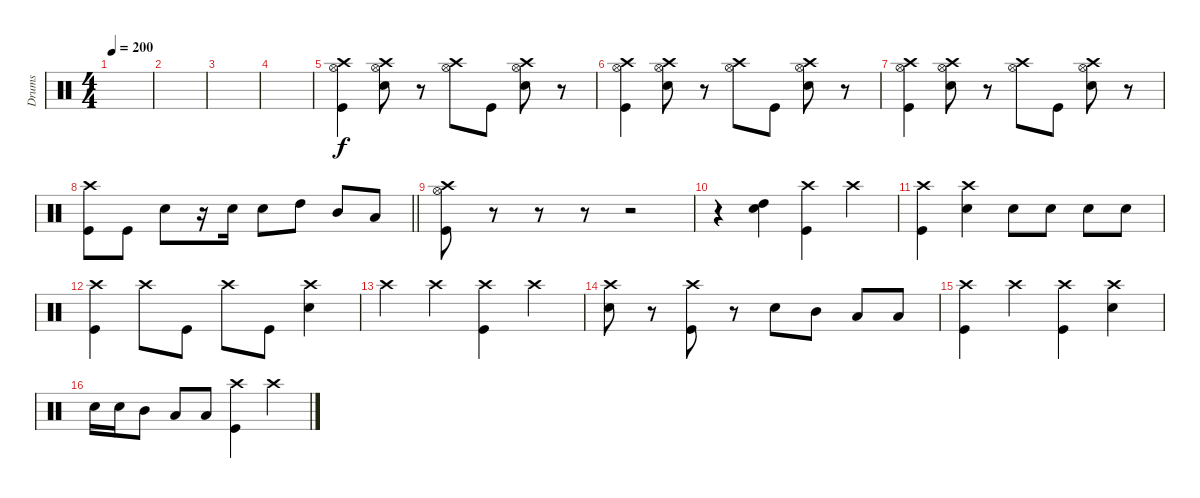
\track ("Drums" "Drums") {instrument percussion}
\staff {score}
\articulation defaults
\ts (4 4)
\tempo 200
\clef neutral
\ks c
|
|
|
|
("Crash high (hit)" "Hi-Hat (open)" "Kick (hit)").4 ("Crash high (hit)" "Snare (hit) 2" "Hi-Hat (open)").8 r.8 ("Crash high (hit)" "Hi-Hat (open)").8 "Kick (hit)".8 ("Crash high (hit)" "Snare (hit) 2" "Hi-Hat (open)").8 r.8 |
("Crash high (hit)" "Hi-Hat (open)" "Kick (hit)").4 ("Crash high (hit)" "Snare (hit) 2" "Hi-Hat (open)").8 r.8 ("Crash high (hit)" "Hi-Hat (open)").8 "Kick (hit)".8 ("Crash high (hit)" "Snare (hit) 2" "Hi-Hat (open)").8 r.8 |
("Crash high (hit)" "Hi-Hat (open)" "Kick (hit)").4 ("Crash high (hit)" "Snare (hit) 2" "Hi-Hat (open)").8 r.8 ("Crash high (hit)" "Hi-Hat (open)").8 "Kick (hit)".8 ("Crash high (hit)" "Snare (hit) 2" "Hi-Hat (open)").8 r.8 |
\barLineRight lightlight
("Crash high (hit)" "Kick (hit)").8 "Kick (hit)".8 "Snare (hit) 2".8 r.16 "Snare (hit) 2".16 "Snare (hit) 2".8 "High Tom (hit)".8 "Mid Tom (hit)".8 "Low Tom (hit)".8 |
("Crash high (hit)" "Hi-Hat (open)" "Kick (hit)").8 r.8 r.8 r.8 r.2 |
r.4 ("Snare (hit) 2" "High Tom (hit)").4 ("Crash high (hit)" "Kick (hit)").4 "Crash high (hit)".4 |
("Crash high (hit)" "Kick (hit)").4 ("Crash high (hit)" "Snare (hit) 2").4 "Snare (hit) 2".8 "Snare (hit) 2".8 "Snare (hit) 2".8 "Snare (hit) 2".8 |
("Crash high (hit)" "Kick (hit)").4 "Crash high (hit)".8 "Kick (hit)".8 "Crash high (hit)".8 "Kick (hit)".8 ("Crash high (hit)" "Snare (hit) 2").4 |
"Crash high (hit)".4 "Crash high (hit)".4 ("Crash high (hit)" "Kick (hit)").4 "Crash high (hit)".4 |
("Crash high (hit)" "Snare (hit) 2").8 r.8 ("Crash high (hit)" "Kick (hit)").8 r.8 "Snare (hit) 2".8 "Mid Tom (hit)".8 "Low Tom (hit)".8 "Low Floor Tom (hit)".8 |
("Crash high (hit)" "Kick (hit)").4 "Crash high (hit)".4 ("Crash high (hit)" "Kick (hit)").4 ("Crash high (hit)" "Snare (hit) 2").4 |
"Snare (hit) 2".16 "Snare (hit) 2".16 "Mid Tom (hit)".8 "Low Tom (hit)".8 "Low Floor Tom (hit)".8 ("Crash high (hit)" "Kick (hit)").4 "Crash high (hit)".4
